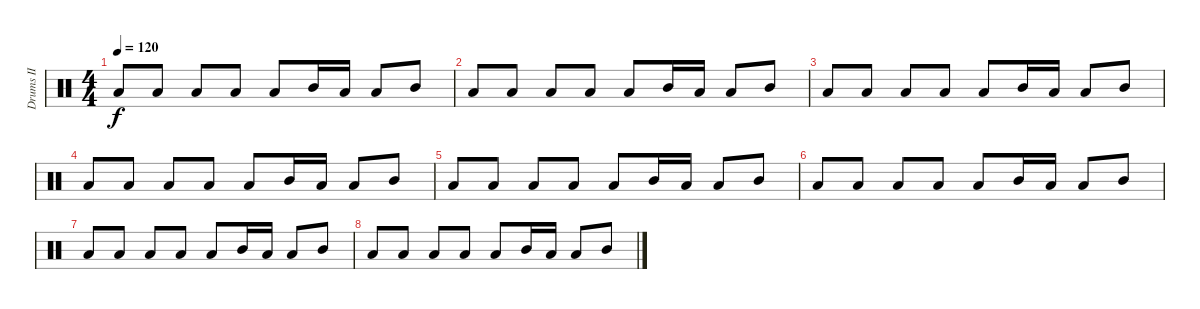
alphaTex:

\track ("Drums II" "Drums II") {instrument percussion}
\staff {score}
\articulation defaults
\ts (4 4)
\tempo 120
\clef neutral
\ks c "Low Tom (hit)".8{dy f} "Low Tom (hit)".8 "Low Tom (hit)".8 "Low Tom (hit)".8 "Low Tom (hit)".8 "Mid Tom (hit)".16 "Low Tom (hit)".16 "Low Tom (hit)".8 "Mid Tom (hit)".8
|
"Low Tom (hit)".8 "Low Tom (hit)".8 "Low Tom (hit)".8 "Low Tom (hit)".8 "Low Tom (hit)".8 "Mid Tom (hit)".16 "Low Tom (hit)".16 "Low Tom (hit)".8 "Mid Tom (hit)".8 |
"Low Tom (hit)".8 "Low Tom (hit)".8 "Low Tom (hit)".8 "Low Tom (hit)".8 "Low Tom (hit)".8 "Mid Tom (hit)".16 "Low Tom (hit)".16 "Low Tom (hit)".8 "Mid Tom (hit)".8 |
"Low Tom (hit)".8 "Low Tom (hit)".8 "Low Tom (hit)".8 "Low Tom (hit)".8 "Low Tom (hit)".8 "Mid Tom (hit)".16 "Low Tom (hit)".16 "Low Tom (hit)".8 "Mid Tom (hit)".8 |
"Low Tom (hit)".8 "Low Tom (hit)".8 "Low Tom (hit)".8 "Low Tom (hit)".8 "Low Tom (hit)".8 "Mid Tom (hit)".16 "Low Tom (hit)".16 "Low Tom (hit)".8 "Mid Tom (hit)".8 |
"Low Tom (hit)".8 "Low Tom (hit)".8 "Low Tom (hit)".8 "Low Tom (hit)".8 "Low Tom (hit)".8 "Mid Tom (hit)".16 "Low Tom (hit)".16 "Low Tom (hit)".8 "Mid Tom (hit)".8 |
"Low Tom (hit)".8 "Low Tom (hit)".8 "Low Tom (hit)".8 "Low Tom (hit)".8 "Low Tom (hit)".8 "Mid Tom (hit)".16 "Low Tom (hit)".16 "Low Tom (hit)".8 "Mid Tom (hit)".8 |
"Low Tom (hit)".8 "Low Tom (hit)".8 "Low Tom (hit)".8 "Low Tom (hit)".8 "Low Tom (hit)".8 "Mid Tom (hit)".16 "Low Tom (hit)".16 "Low Tom (hit)".8 "Mid Tom (hit)".8
